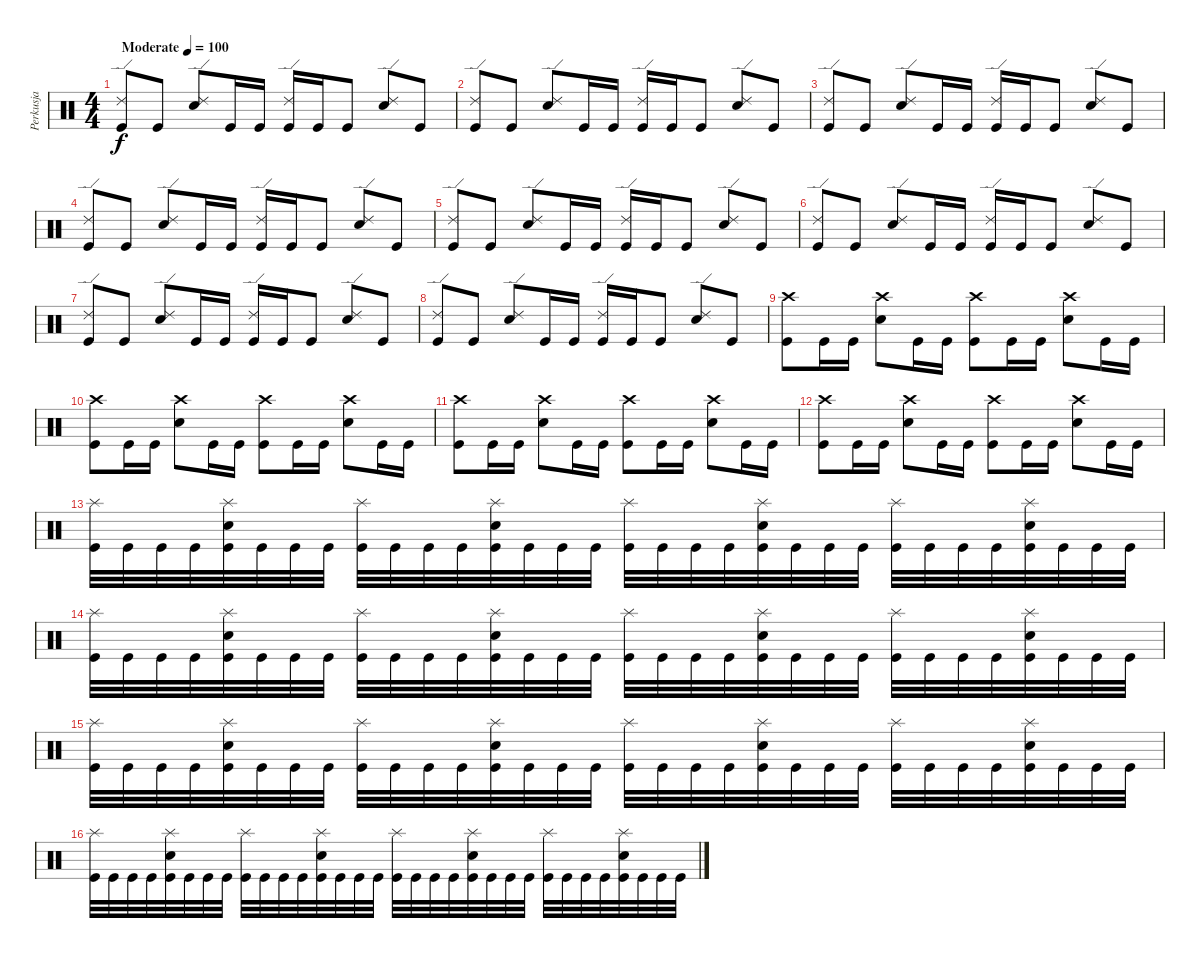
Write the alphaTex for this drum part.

\track ("Perkusja" "Perkusja") {instrument percussion}
\staff {score}
\articulation defaults
\ts (4 4)
\tempo (100 "Moderate")
\clef neutral
\ks c
("Ride (edge) 2" "Kick (hit)").8{dy f} "Kick (hit)".8 ("Ride (edge) 2" "Snare (hit) 2").8 "Kick (hit)".16 "Kick (hit)".16 ("Ride (edge) 2" "Kick (hit)").16 "Kick (hit)".16 "Kick (hit)".8 ("Ride (edge) 2" "Snare (hit) 2").8 "Kick (hit)".8 |
("Ride (edge) 2" "Kick (hit)").8 "Kick (hit)".8 ("Ride (edge) 2" "Snare (hit) 2").8 "Kick (hit)".16 "Kick (hit)".16 ("Ride (edge) 2" "Kick (hit)").16 "Kick (hit)".16 "Kick (hit)".8 ("Ride (edge) 2" "Snare (hit) 2").8 "Kick (hit)".8 |
("Ride (edge) 2" "Kick (hit)").8 "Kick (hit)".8 ("Ride (edge) 2" "Snare (hit) 2").8 "Kick (hit)".16 "Kick (hit)".16 ("Ride (edge) 2" "Kick (hit)").16 "Kick (hit)".16 "Kick (hit)".8 ("Ride (edge) 2" "Snare (hit) 2").8 "Kick (hit)".8 |
("Ride (edge) 2" "Kick (hit)").8 "Kick (hit)".8 ("Ride (edge) 2" "Snare (hit) 2").8 "Kick (hit)".16 "Kick (hit)".16 ("Ride (edge) 2" "Kick (hit)").16 "Kick (hit)".16 "Kick (hit)".8 ("Ride (edge) 2" "Snare (hit) 2").8 "Kick (hit)".8 |
("Ride (edge) 2" "Kick (hit)").8 "Kick (hit)".8 ("Ride (edge) 2" "Snare (hit) 2").8 "Kick (hit)".16 "Kick (hit)".16 ("Ride (edge) 2" "Kick (hit)").16 "Kick (hit)".16 "Kick (hit)".8 ("Ride (edge) 2" "Snare (hit) 2").8 "Kick (hit)".8 |
("Ride (edge) 2" "Kick (hit)").8 "Kick (hit)".8 ("Ride (edge) 2" "Snare (hit) 2").8 "Kick (hit)".16 "Kick (hit)".16 ("Ride (edge) 2" "Kick (hit)").16 "Kick (hit)".16 "Kick (hit)".8 ("Ride (edge) 2" "Snare (hit) 2").8 "Kick (hit)".8 |
("Ride (edge) 2" "Kick (hit)").8 "Kick (hit)".8 ("Ride (edge) 2" "Snare (hit) 2").8 "Kick (hit)".16 "Kick (hit)".16 ("Ride (edge) 2" "Kick (hit)").16 "Kick (hit)".16 "Kick (hit)".8 ("Ride (edge) 2" "Snare (hit) 2").8 "Kick (hit)".8 |
("Ride (edge) 2" "Kick (hit)").8 "Kick (hit)".8 ("Ride (edge) 2" "Snare (hit) 2").8 "Kick (hit)".16 "Kick (hit)".16 ("Ride (edge) 2" "Kick (hit)").16 "Kick (hit)".16 "Kick (hit)".8 ("Ride (edge) 2" "Snare (hit) 2").8 "Kick (hit)".8 |
("Crash high (hit)" "Kick (hit)").8 "Kick (hit)".16 "Kick (hit)".16 ("Crash high (hit)" "Snare (hit) 2").8 "Kick (hit)".16 "Kick (hit)".16 ("Crash high (hit)" "Kick (hit)").8 "Kick (hit)".16 "Kick (hit)".16 ("Crash high (hit)" "Snare (hit) 2").8 "Kick (hit)".16 "Kick (hit)".16 |
("Crash high (hit)" "Kick (hit)").8 "Kick (hit)".16 "Kick (hit)".16 ("Crash high (hit)" "Snare (hit) 2").8 "Kick (hit)".16 "Kick (hit)".16 ("Crash high (hit)" "Kick (hit)").8 "Kick (hit)".16 "Kick (hit)".16 ("Crash high (hit)" "Snare (hit) 2").8 "Kick (hit)".16 "Kick (hit)".16 |
("Crash high (hit)" "Kick (hit)").8 "Kick (hit)".16 "Kick (hit)".16 ("Crash high (hit)" "Snare (hit) 2").8 "Kick (hit)".16 "Kick (hit)".16 ("Crash high (hit)" "Kick (hit)").8 "Kick (hit)".16 "Kick (hit)".16 ("Crash high (hit)" "Snare (hit) 2").8 "Kick (hit)".16 "Kick (hit)".16 |
("Crash high (hit)" "Kick (hit)").8 "Kick (hit)".16 "Kick (hit)".16 ("Crash high (hit)" "Snare (hit) 2").8 "Kick (hit)".16 "Kick (hit)".16 ("Crash high (hit)" "Kick (hit)").8 "Kick (hit)".16 "Kick (hit)".16 ("Crash high (hit)" "Snare (hit) 2").8 "Kick (hit)".16 "Kick (hit)".16 |
("Splash (hit)" "Kick (hit)").32 "Kick (hit)".32 "Kick (hit)".32 "Kick (hit)".32 ("Splash (hit)" "Snare (hit) 2" "Kick (hit)").32 "Kick (hit)".32 "Kick (hit)".32 "Kick (hit)".32 ("Splash (hit)" "Kick (hit)").32 "Kick (hit)".32 "Kick (hit)".32 "Kick (hit)".32 ("Splash (hit)" "Snare (hit) 2" "Kick (hit)").32 "Kick (hit)".32 "Kick (hit)".32 "Kick (hit)".32 ("Splash (hit)" "Kick (hit)").32 "Kick (hit)".32 "Kick (hit)".32 "Kick (hit)".32 ("Splash (hit)" "Snare (hit) 2" "Kick (hit)").32 "Kick (hit)".32 "Kick (hit)".32 "Kick (hit)".32 ("Splash (hit)" "Kick (hit)").32 "Kick (hit)".32 "Kick (hit)".32 "Kick (hit)".32 ("Splash (hit)" "Snare (hit) 2" "Kick (hit)").32 "Kick (hit)".32 "Kick (hit)".32 "Kick (hit)".32 |
("Splash (hit)" "Kick (hit)").32 "Kick (hit)".32 "Kick (hit)".32 "Kick (hit)".32 ("Splash (hit)" "Snare (hit) 2" "Kick (hit)").32 "Kick (hit)".32 "Kick (hit)".32 "Kick (hit)".32 ("Splash (hit)" "Kick (hit)").32 "Kick (hit)".32 "Kick (hit)".32 "Kick (hit)".32 ("Splash (hit)" "Snare (hit) 2" "Kick (hit)").32 "Kick (hit)".32 "Kick (hit)".32 "Kick (hit)".32 ("Splash (hit)" "Kick (hit)").32 "Kick (hit)".32 "Kick (hit)".32 "Kick (hit)".32 ("Splash (hit)" "Snare (hit) 2" "Kick (hit)").32 "Kick (hit)".32 "Kick (hit)".32 "Kick (hit)".32 ("Splash (hit)" "Kick (hit)").32 "Kick (hit)".32 "Kick (hit)".32 "Kick (hit)".32 ("Splash (hit)" "Snare (hit) 2" "Kick (hit)").32 "Kick (hit)".32 "Kick (hit)".32 "Kick (hit)".32 |
("Splash (hit)" "Kick (hit)").32 "Kick (hit)".32 "Kick (hit)".32 "Kick (hit)".32 ("Splash (hit)" "Snare (hit) 2" "Kick (hit)").32 "Kick (hit)".32 "Kick (hit)".32 "Kick (hit)".32 ("Splash (hit)" "Kick (hit)").32 "Kick (hit)".32 "Kick (hit)".32 "Kick (hit)".32 ("Splash (hit)" "Snare (hit) 2" "Kick (hit)").32 "Kick (hit)".32 "Kick (hit)".32 "Kick (hit)".32 ("Splash (hit)" "Kick (hit)").32 "Kick (hit)".32 "Kick (hit)".32 "Kick (hit)".32 ("Splash (hit)" "Snare (hit) 2" "Kick (hit)").32 "Kick (hit)".32 "Kick (hit)".32 "Kick (hit)".32 ("Splash (hit)" "Kick (hit)").32 "Kick (hit)".32 "Kick (hit)".32 "Kick (hit)".32 ("Splash (hit)" "Snare (hit) 2" "Kick (hit)").32 "Kick (hit)".32 "Kick (hit)".32 "Kick (hit)".32 |
("Splash (hit)" "Kick (hit)").32 "Kick (hit)".32 "Kick (hit)".32 "Kick (hit)".32 ("Splash (hit)" "Snare (hit) 2" "Kick (hit)").32 "Kick (hit)".32 "Kick (hit)".32 "Kick (hit)".32 ("Splash (hit)" "Kick (hit)").32 "Kick (hit)".32 "Kick (hit)".32 "Kick (hit)".32 ("Splash (hit)" "Snare (hit) 2" "Kick (hit)").32 "Kick (hit)".32 "Kick (hit)".32 "Kick (hit)".32 ("Splash (hit)" "Kick (hit)").32 "Kick (hit)".32 "Kick (hit)".32 "Kick (hit)".32 ("Splash (hit)" "Snare (hit) 2" "Kick (hit)").32 "Kick (hit)".32 "Kick (hit)".32 "Kick (hit)".32 ("Splash (hit)" "Kick (hit)").32 "Kick (hit)".32 "Kick (hit)".32 "Kick (hit)".32 ("Splash (hit)" "Snare (hit) 2" "Kick (hit)").32 "Kick (hit)".32 "Kick (hit)".32 "Kick (hit)".32
